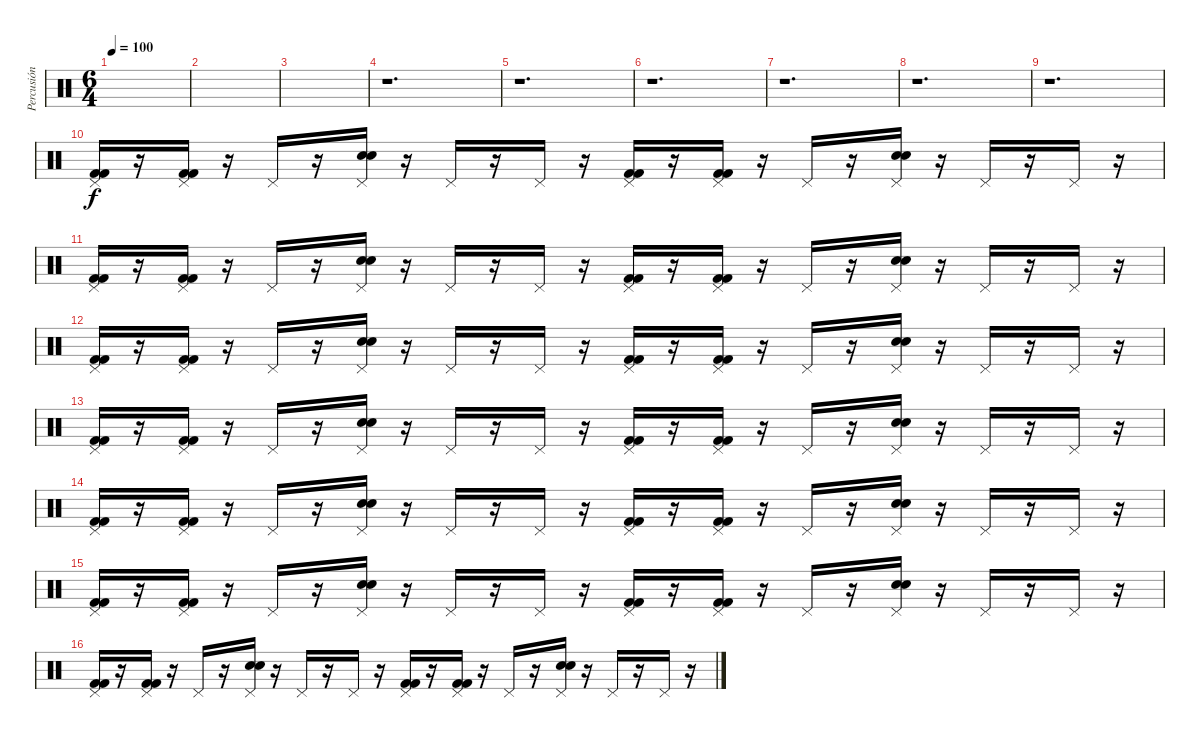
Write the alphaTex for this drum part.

\track ("Percusión" "Percusión") {instrument percussion}
\staff {score}
\articulation defaults
\ts (6 4)
\tempo 100
\clef neutral
\ks c
|
|
|
r.1{d} |
r.1{d} |
r.1{d} |
r.1{d} |
r.1{d} |
r.1{d} |
("Pedal Hi-Hat (hit)" "Kick (hit) 2" "Kick (hit) 2").16 r.16 ("Pedal Hi-Hat (hit)" "Kick (hit) 2" "Kick (hit) 2").16 r.16 "Pedal Hi-Hat (hit)".16 r.16 ("Pedal Hi-Hat (hit)" "Electric Snare (hit)" "Electric Snare (hit)").16 r.16 "Pedal Hi-Hat (hit)".16 r.16 "Pedal Hi-Hat (hit)".16 r.16 ("Pedal Hi-Hat (hit)" "Kick (hit) 2" "Kick (hit) 2").16 r.16 ("Pedal Hi-Hat (hit)" "Kick (hit) 2" "Kick (hit) 2").16 r.16 "Pedal Hi-Hat (hit)".16 r.16 ("Pedal Hi-Hat (hit)" "Electric Snare (hit)" "Electric Snare (hit)").16 r.16 "Pedal Hi-Hat (hit)".16 r.16 "Pedal Hi-Hat (hit)".16 r.16 |
("Pedal Hi-Hat (hit)" "Kick (hit) 2" "Kick (hit) 2").16 r.16 ("Pedal Hi-Hat (hit)" "Kick (hit) 2" "Kick (hit) 2").16 r.16 "Pedal Hi-Hat (hit)".16 r.16 ("Pedal Hi-Hat (hit)" "Electric Snare (hit)" "Electric Snare (hit)").16 r.16 "Pedal Hi-Hat (hit)".16 r.16 "Pedal Hi-Hat (hit)".16 r.16 ("Pedal Hi-Hat (hit)" "Kick (hit) 2" "Kick (hit) 2").16 r.16 ("Pedal Hi-Hat (hit)" "Kick (hit) 2" "Kick (hit) 2").16 r.16 "Pedal Hi-Hat (hit)".16 r.16 ("Pedal Hi-Hat (hit)" "Electric Snare (hit)" "Electric Snare (hit)").16 r.16 "Pedal Hi-Hat (hit)".16 r.16 "Pedal Hi-Hat (hit)".16 r.16 |
("Pedal Hi-Hat (hit)" "Kick (hit) 2" "Kick (hit) 2").16 r.16 ("Pedal Hi-Hat (hit)" "Kick (hit) 2" "Kick (hit) 2").16 r.16 "Pedal Hi-Hat (hit)".16 r.16 ("Pedal Hi-Hat (hit)" "Electric Snare (hit)" "Electric Snare (hit)").16 r.16 "Pedal Hi-Hat (hit)".16 r.16 "Pedal Hi-Hat (hit)".16 r.16 ("Pedal Hi-Hat (hit)" "Kick (hit) 2" "Kick (hit) 2").16 r.16 ("Pedal Hi-Hat (hit)" "Kick (hit) 2" "Kick (hit) 2").16 r.16 "Pedal Hi-Hat (hit)".16 r.16 ("Pedal Hi-Hat (hit)" "Electric Snare (hit)" "Electric Snare (hit)").16 r.16 "Pedal Hi-Hat (hit)".16 r.16 "Pedal Hi-Hat (hit)".16 r.16 |
("Pedal Hi-Hat (hit)" "Kick (hit) 2" "Kick (hit) 2").16 r.16 ("Pedal Hi-Hat (hit)" "Kick (hit) 2" "Kick (hit) 2").16 r.16 "Pedal Hi-Hat (hit)".16 r.16 ("Pedal Hi-Hat (hit)" "Electric Snare (hit)" "Electric Snare (hit)").16 r.16 "Pedal Hi-Hat (hit)".16 r.16 "Pedal Hi-Hat (hit)".16 r.16 ("Pedal Hi-Hat (hit)" "Kick (hit) 2" "Kick (hit) 2").16 r.16 ("Pedal Hi-Hat (hit)" "Kick (hit) 2" "Kick (hit) 2").16 r.16 "Pedal Hi-Hat (hit)".16 r.16 ("Pedal Hi-Hat (hit)" "Electric Snare (hit)" "Electric Snare (hit)").16 r.16 "Pedal Hi-Hat (hit)".16 r.16 "Pedal Hi-Hat (hit)".16 r.16 |
("Pedal Hi-Hat (hit)" "Kick (hit) 2" "Kick (hit) 2").16 r.16 ("Pedal Hi-Hat (hit)" "Kick (hit) 2" "Kick (hit) 2").16 r.16 "Pedal Hi-Hat (hit)".16 r.16 ("Pedal Hi-Hat (hit)" "Electric Snare (hit)" "Electric Snare (hit)").16 r.16 "Pedal Hi-Hat (hit)".16 r.16 "Pedal Hi-Hat (hit)".16 r.16 ("Pedal Hi-Hat (hit)" "Kick (hit) 2" "Kick (hit) 2").16 r.16 ("Pedal Hi-Hat (hit)" "Kick (hit) 2" "Kick (hit) 2").16 r.16 "Pedal Hi-Hat (hit)".16 r.16 ("Pedal Hi-Hat (hit)" "Electric Snare (hit)" "Electric Snare (hit)").16 r.16 "Pedal Hi-Hat (hit)".16 r.16 "Pedal Hi-Hat (hit)".16 r.16 |
("Pedal Hi-Hat (hit)" "Kick (hit) 2" "Kick (hit) 2").16 r.16 ("Pedal Hi-Hat (hit)" "Kick (hit) 2" "Kick (hit) 2").16 r.16 "Pedal Hi-Hat (hit)".16 r.16 ("Pedal Hi-Hat (hit)" "Electric Snare (hit)" "Electric Snare (hit)").16 r.16 "Pedal Hi-Hat (hit)".16 r.16 "Pedal Hi-Hat (hit)".16 r.16 ("Pedal Hi-Hat (hit)" "Kick (hit) 2" "Kick (hit) 2").16 r.16 ("Pedal Hi-Hat (hit)" "Kick (hit) 2" "Kick (hit) 2").16 r.16 "Pedal Hi-Hat (hit)".16 r.16 ("Pedal Hi-Hat (hit)" "Electric Snare (hit)" "Electric Snare (hit)").16 r.16 "Pedal Hi-Hat (hit)".16 r.16 "Pedal Hi-Hat (hit)".16 r.16 |
("Pedal Hi-Hat (hit)" "Kick (hit) 2" "Kick (hit) 2").16 r.16 ("Pedal Hi-Hat (hit)" "Kick (hit) 2" "Kick (hit) 2").16 r.16 "Pedal Hi-Hat (hit)".16 r.16 ("Pedal Hi-Hat (hit)" "Electric Snare (hit)" "Electric Snare (hit)").16 r.16 "Pedal Hi-Hat (hit)".16 r.16 "Pedal Hi-Hat (hit)".16 r.16 ("Pedal Hi-Hat (hit)" "Kick (hit) 2" "Kick (hit) 2").16 r.16 ("Pedal Hi-Hat (hit)" "Kick (hit) 2" "Kick (hit) 2").16 r.16 "Pedal Hi-Hat (hit)".16 r.16 ("Pedal Hi-Hat (hit)" "Electric Snare (hit)" "Electric Snare (hit)").16 r.16 "Pedal Hi-Hat (hit)".16 r.16 "Pedal Hi-Hat (hit)".16 r.16
